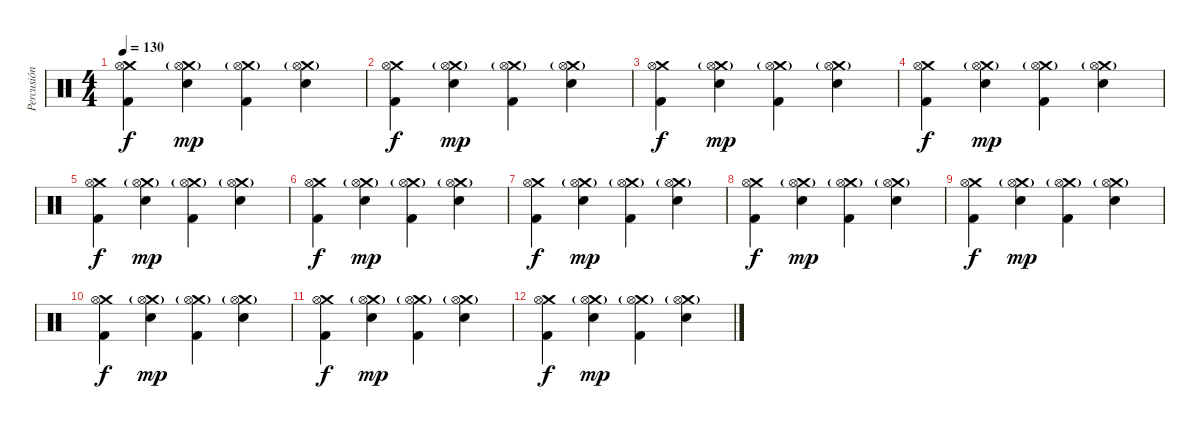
\track ("Percusión" "Percusión") {instrument percussion}
\staff {score}
\articulation defaults
\ts (4 4)
\tempo 130
\clef neutral
\ks c
("Crash medium (hit)" "Kick (hit) 2" "Hi-Hat (open)").4{dy f} ("Snare (hit) 2" "Crash medium (hit)"{g} "Hi-Hat (open)").4{dy mp} ("Kick (hit) 2" "Crash medium (hit)"{g} "Hi-Hat (open)").4 ("Snare (hit) 2" "Crash medium (hit)"{g} "Hi-Hat (open)").4 |
("Crash medium (hit)" "Kick (hit) 2" "Hi-Hat (open)").4{dy f} ("Snare (hit) 2" "Crash medium (hit)"{g} "Hi-Hat (open)").4{dy mp} ("Kick (hit) 2" "Crash medium (hit)"{g} "Hi-Hat (open)").4 ("Snare (hit) 2" "Crash medium (hit)"{g} "Hi-Hat (open)").4 |
("Crash medium (hit)" "Kick (hit) 2" "Hi-Hat (open)").4{dy f} ("Snare (hit) 2" "Crash medium (hit)"{g} "Hi-Hat (open)").4{dy mp} ("Kick (hit) 2" "Crash medium (hit)"{g} "Hi-Hat (open)").4 ("Snare (hit) 2" "Crash medium (hit)"{g} "Hi-Hat (open)").4 |
("Crash medium (hit)" "Kick (hit) 2" "Hi-Hat (open)").4{dy f} ("Snare (hit) 2" "Crash medium (hit)"{g} "Hi-Hat (open)").4{dy mp} ("Kick (hit) 2" "Crash medium (hit)"{g} "Hi-Hat (open)").4 ("Snare (hit) 2" "Crash medium (hit)"{g} "Hi-Hat (open)").4 |
("Crash medium (hit)" "Kick (hit) 2" "Hi-Hat (open)").4{dy f} ("Snare (hit) 2" "Crash medium (hit)"{g} "Hi-Hat (open)").4{dy mp} ("Kick (hit) 2" "Crash medium (hit)"{g} "Hi-Hat (open)").4 ("Snare (hit) 2" "Crash medium (hit)"{g} "Hi-Hat (open)").4 |
("Crash medium (hit)" "Kick (hit) 2" "Hi-Hat (open)").4{dy f} ("Snare (hit) 2" "Crash medium (hit)"{g} "Hi-Hat (open)").4{dy mp} ("Kick (hit) 2" "Crash medium (hit)"{g} "Hi-Hat (open)").4 ("Snare (hit) 2" "Crash medium (hit)"{g} "Hi-Hat (open)").4 |
("Crash medium (hit)" "Kick (hit) 2" "Hi-Hat (open)").4{dy f} ("Snare (hit) 2" "Crash medium (hit)"{g} "Hi-Hat (open)").4{dy mp} ("Kick (hit) 2" "Crash medium (hit)"{g} "Hi-Hat (open)").4 ("Snare (hit) 2" "Crash medium (hit)"{g} "Hi-Hat (open)").4 |
("Crash medium (hit)" "Kick (hit) 2" "Hi-Hat (open)").4{dy f} ("Snare (hit) 2" "Crash medium (hit)"{g} "Hi-Hat (open)").4{dy mp} ("Kick (hit) 2" "Crash medium (hit)"{g} "Hi-Hat (open)").4 ("Snare (hit) 2" "Crash medium (hit)"{g} "Hi-Hat (open)").4 |
("Crash medium (hit)" "Kick (hit) 2" "Hi-Hat (open)").4{dy f} ("Snare (hit) 2" "Crash medium (hit)"{g} "Hi-Hat (open)").4{dy mp} ("Kick (hit) 2" "Crash medium (hit)"{g} "Hi-Hat (open)").4 ("Snare (hit) 2" "Crash medium (hit)"{g} "Hi-Hat (open)").4 |
("Crash medium (hit)" "Kick (hit) 2" "Hi-Hat (open)").4{dy f} ("Snare (hit) 2" "Crash medium (hit)"{g} "Hi-Hat (open)").4{dy mp} ("Kick (hit) 2" "Crash medium (hit)"{g} "Hi-Hat (open)").4 ("Snare (hit) 2" "Crash medium (hit)"{g} "Hi-Hat (open)").4 |
("Crash medium (hit)" "Kick (hit) 2" "Hi-Hat (open)").4{dy f} ("Snare (hit) 2" "Crash medium (hit)"{g} "Hi-Hat (open)").4{dy mp} ("Kick (hit) 2" "Crash medium (hit)"{g} "Hi-Hat (open)").4 ("Snare (hit) 2" "Crash medium (hit)"{g} "Hi-Hat (open)").4 |
("Crash medium (hit)" "Kick (hit) 2" "Hi-Hat (open)").4{dy f} ("Snare (hit) 2" "Crash medium (hit)"{g} "Hi-Hat (open)").4{dy mp} ("Kick (hit) 2" "Crash medium (hit)"{g} "Hi-Hat (open)").4 ("Snare (hit) 2" "Crash medium (hit)"{g} "Hi-Hat (open)").4
